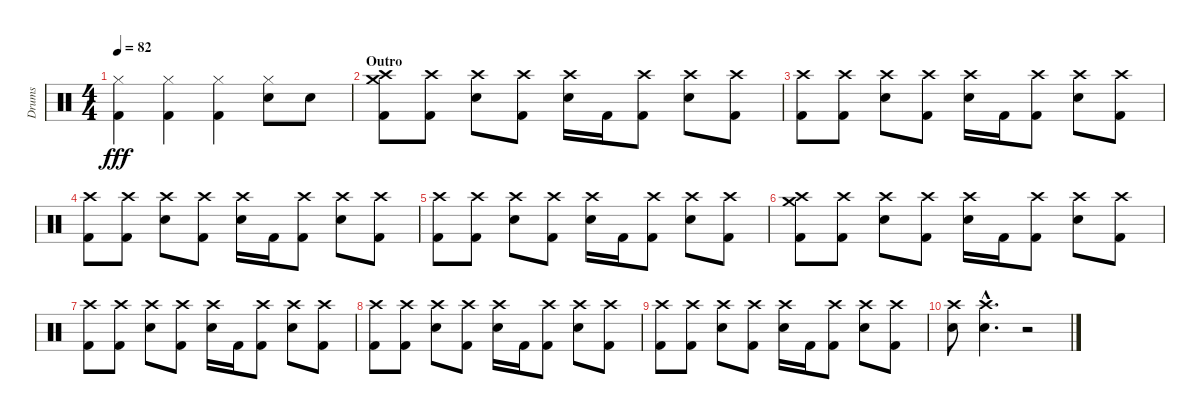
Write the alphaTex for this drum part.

\track ("Drums" "Drums") {instrument percussion}
\staff {score}
\articulation defaults
\ts (4 4)
\tempo 82
\clef neutral
\ks c
("Hi-Hat (closed)" "Kick (hit) 2").4{dy fff} ("Hi-Hat (closed)" "Kick (hit) 2").4 ("Hi-Hat (closed)" "Kick (hit) 2").4 ("Hi-Hat (closed)" "Electric Snare (hit)").8 "Electric Snare (hit)".8 |
\section ("" "Outro")
("Crash high (hit)" "Crash medium (hit)" "Kick (hit) 2").8 ("Crash high (hit)" "Kick (hit) 2").8 ("Crash high (hit)" "Electric Snare (hit)").8 ("Crash high (hit)" "Kick (hit) 2").8 ("Crash high (hit)" "Electric Snare (hit)").16 "Kick (hit) 2".16 ("Crash high (hit)" "Kick (hit) 2").8 ("Crash high (hit)" "Electric Snare (hit)").8 ("Crash high (hit)" "Kick (hit) 2").8 |
("Crash high (hit)" "Kick (hit) 2").8 ("Crash high (hit)" "Kick (hit) 2").8 ("Crash high (hit)" "Electric Snare (hit)").8 ("Crash high (hit)" "Kick (hit) 2").8 ("Crash high (hit)" "Electric Snare (hit)").16 "Kick (hit) 2".16 ("Crash high (hit)" "Kick (hit) 2").8 ("Crash high (hit)" "Electric Snare (hit)").8 ("Crash high (hit)" "Kick (hit) 2").8 |
("Crash high (hit)" "Kick (hit) 2").8 ("Crash high (hit)" "Kick (hit) 2").8 ("Crash high (hit)" "Electric Snare (hit)").8 ("Crash high (hit)" "Kick (hit) 2").8 ("Crash high (hit)" "Electric Snare (hit)").16 "Kick (hit) 2".16 ("Crash high (hit)" "Kick (hit) 2").8 ("Crash high (hit)" "Electric Snare (hit)").8 ("Crash high (hit)" "Kick (hit) 2").8 |
("Crash high (hit)" "Kick (hit) 2").8 ("Crash high (hit)" "Kick (hit) 2").8 ("Crash high (hit)" "Electric Snare (hit)").8 ("Crash high (hit)" "Kick (hit) 2").8 ("Crash high (hit)" "Electric Snare (hit)").16 "Kick (hit) 2".16 ("Crash high (hit)" "Kick (hit) 2").8 ("Crash high (hit)" "Electric Snare (hit)").8 ("Crash high (hit)" "Kick (hit) 2").8 |
("Crash high (hit)" "Crash medium (hit)" "Kick (hit) 2").8 ("Crash high (hit)" "Kick (hit) 2").8 ("Crash high (hit)" "Electric Snare (hit)").8 ("Crash high (hit)" "Kick (hit) 2").8 ("Crash high (hit)" "Electric Snare (hit)").16 "Kick (hit) 2".16 ("Crash high (hit)" "Kick (hit) 2").8 ("Crash high (hit)" "Electric Snare (hit)").8 ("Crash high (hit)" "Kick (hit) 2").8 |
("Crash high (hit)" "Kick (hit) 2").8 ("Crash high (hit)" "Kick (hit) 2").8 ("Crash high (hit)" "Electric Snare (hit)").8 ("Crash high (hit)" "Kick (hit) 2").8 ("Crash high (hit)" "Electric Snare (hit)").16 "Kick (hit) 2".16 ("Crash high (hit)" "Kick (hit) 2").8 ("Crash high (hit)" "Electric Snare (hit)").8 ("Crash high (hit)" "Kick (hit) 2").8 |
("Crash high (hit)" "Kick (hit) 2").8 ("Crash high (hit)" "Kick (hit) 2").8 ("Crash high (hit)" "Electric Snare (hit)").8 ("Crash high (hit)" "Kick (hit) 2").8 ("Crash high (hit)" "Electric Snare (hit)").16 "Kick (hit) 2".16 ("Crash high (hit)" "Kick (hit) 2").8 ("Crash high (hit)" "Electric Snare (hit)").8 ("Crash high (hit)" "Kick (hit) 2").8 |
("Crash high (hit)" "Kick (hit) 2").8 ("Crash high (hit)" "Kick (hit) 2").8 ("Crash high (hit)" "Electric Snare (hit)").8 ("Crash high (hit)" "Kick (hit) 2").8 ("Crash high (hit)" "Electric Snare (hit)").16 "Kick (hit) 2".16 ("Crash high (hit)" "Kick (hit) 2").8 ("Crash high (hit)" "Electric Snare (hit)").8 ("Crash high (hit)" "Kick (hit) 2").8 |
("Crash high (hit)" "Electric Snare (hit)").8 ("Crash high (hit)"{hac} "Electric Snare (hit)"{hac}).4{d} r.2
